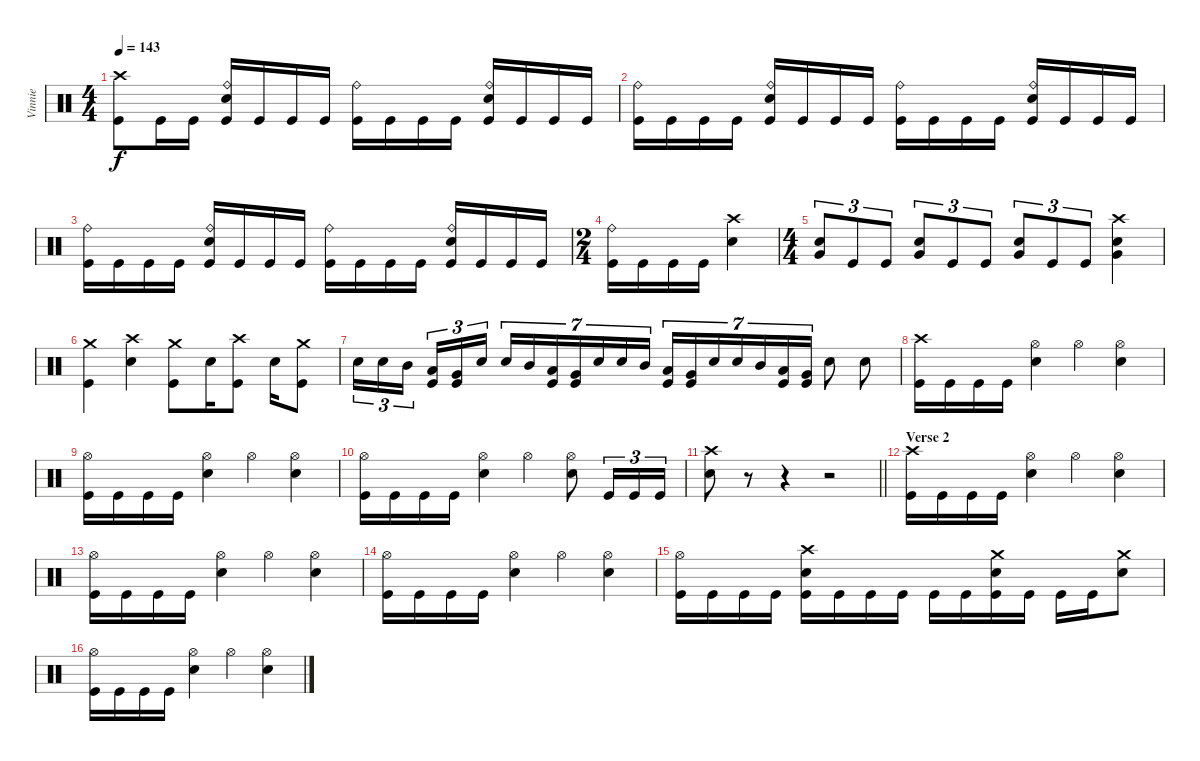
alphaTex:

\track ("Vinnie" "Vinnie") {instrument percussion}
\staff {score}
\articulation defaults
\ts (4 4)
\tempo 143
\clef neutral
\ks c
("Crash high (hit)" "Kick (hit)").8{dy f} "Kick (hit)".16 "Kick (hit)".16 ("Ride (bell)" "Electric Snare (hit)" "Kick (hit)").16 "Kick (hit)".16 "Kick (hit)".16 "Kick (hit)".16 ("Ride (bell)" "Kick (hit)").16 "Kick (hit)".16 "Kick (hit)".16 "Kick (hit)".16 ("Ride (bell)" "Electric Snare (hit)" "Kick (hit)").16 "Kick (hit)".16 "Kick (hit)".16 "Kick (hit)".16 |
("Ride (bell)" "Kick (hit)").16 "Kick (hit)".16 "Kick (hit)".16 "Kick (hit)".16 ("Ride (bell)" "Electric Snare (hit)" "Kick (hit)").16 "Kick (hit)".16 "Kick (hit)".16 "Kick (hit)".16 ("Ride (bell)" "Kick (hit)").16 "Kick (hit)".16 "Kick (hit)".16 "Kick (hit)".16 ("Ride (bell)" "Electric Snare (hit)" "Kick (hit)").16 "Kick (hit)".16 "Kick (hit)".16 "Kick (hit)".16 |
("Ride (bell)" "Kick (hit)").16 "Kick (hit)".16 "Kick (hit)".16 "Kick (hit)".16 ("Ride (bell)" "Electric Snare (hit)" "Kick (hit)").16 "Kick (hit)".16 "Kick (hit)".16 "Kick (hit)".16 ("Ride (bell)" "Kick (hit)").16 "Kick (hit)".16 "Kick (hit)".16 "Kick (hit)".16 ("Ride (bell)" "Electric Snare (hit)" "Kick (hit)").16 "Kick (hit)".16 "Kick (hit)".16 "Kick (hit)".16 |
\ts (2 4)
("Ride (bell)" "Kick (hit)").16 "Kick (hit)".16 "Kick (hit)".16 "Kick (hit)".16 ("Crash high (hit)" "Electric Snare (hit)").4 |
\ts (4 4)
("Electric Snare (hit)" "Very Low Tom (hit)").8{tu (3 2)} "Kick (hit)".8{tu (3 2)} "Kick (hit)".8{tu (3 2)} ("Electric Snare (hit)" "Very Low Tom (hit)").8{tu (3 2)} "Kick (hit)".8{tu (3 2)} "Kick (hit)".8{tu (3 2)} ("Electric Snare (hit)" "Very Low Tom (hit)").8{tu (3 2)} "Kick (hit)".8{tu (3 2)} "Kick (hit)".8{tu (3 2)} ("Crash high (hit)" "Electric Snare (hit)" "Very Low Tom (hit)").4 |
("Crash medium (hit)" "Kick (hit)").4 ("Crash high (hit)" "Electric Snare (hit)").4 ("Crash medium (hit)" "Kick (hit)").8 "Electric Snare (hit)".16 ("Crash high (hit)" "Kick (hit)").8 "Electric Snare (hit)".16 ("Crash medium (hit)" "Kick (hit)").8 |
"Electric Snare (hit)".16{tu (3 2)} "Electric Snare (hit)".16{tu (3 2)} "Mid Tom (hit)".16{tu (3 2) beam splitsecondary} ("Low Tom (hit)" "Kick (hit)").16{tu (3 2)} ("Very Low Tom (hit)" "Kick (hit)").16{tu (3 2)} "Electric Snare (hit)".16{tu (3 2)} "Electric Snare (hit)".16{tu (7 4)} "Mid Tom (hit)".16{tu (7 4)} ("Low Tom (hit)" "Kick (hit)").16{tu (7 4)} ("Very Low Tom (hit)" "Kick (hit)").16{tu (7 4)} "Electric Snare (hit)".16{tu (7 4)} "Electric Snare (hit)".16{tu (7 4)} "Mid Tom (hit)".16{tu (7 4)} ("Low Tom (hit)" "Kick (hit)").16{tu (7 4)} ("Very Low Tom (hit)" "Kick (hit)").16{tu (7 4)} "Electric Snare (hit)".16{tu (7 4)} "Electric Snare (hit)".16{tu (7 4)} "Mid Tom (hit)".16{tu (7 4)} ("Low Tom (hit)" "Kick (hit)").16{tu (7 4)} ("Very Low Tom (hit)" "Kick (hit)").16{tu (7 4)} "Electric Snare (hit)".8 "Electric Snare (hit)".8 |
("Crash high (hit)" "Kick (hit)").16 "Kick (hit)".16 "Kick (hit)".16 "Kick (hit)".16 ("Hi-Hat (open)" "Electric Snare (hit)").4 "Hi-Hat (open)".4 ("Hi-Hat (open)" "Electric Snare (hit)").4 |
("Hi-Hat (open)" "Kick (hit)").16 "Kick (hit)".16 "Kick (hit)".16 "Kick (hit)".16 ("Hi-Hat (open)" "Electric Snare (hit)").4 "Hi-Hat (open)".4 ("Hi-Hat (open)" "Electric Snare (hit)").4 |
("Hi-Hat (open)" "Kick (hit)").16 "Kick (hit)".16 "Kick (hit)".16 "Kick (hit)".16 ("Hi-Hat (open)" "Electric Snare (hit)").4 "Hi-Hat (open)".4 ("Hi-Hat (open)" "Electric Snare (hit)").8 "Kick (hit)".16{tu (3 2)} "Kick (hit)".16{tu (3 2)} "Kick (hit)".16{tu (3 2)} |
\barLineRight lightlight
("Crash high (hit)" "Electric Snare (hit)").8 r.8{volume 0} r.4 r.2 |
\section ("" "Verse 2")
("Crash high (hit)" "Kick (hit)").16{volume 16} "Kick (hit)".16 "Kick (hit)".16 "Kick (hit)".16 ("Hi-Hat (open)" "Electric Snare (hit)").4 "Hi-Hat (open)".4 ("Hi-Hat (open)" "Electric Snare (hit)").4 |
("Hi-Hat (open)" "Kick (hit)").16 "Kick (hit)".16 "Kick (hit)".16 "Kick (hit)".16 ("Hi-Hat (open)" "Electric Snare (hit)").4 "Hi-Hat (open)".4 ("Hi-Hat (open)" "Electric Snare (hit)").4 |
("Hi-Hat (open)" "Kick (hit)").16 "Kick (hit)".16 "Kick (hit)".16 "Kick (hit)".16 ("Hi-Hat (open)" "Electric Snare (hit)").4 "Hi-Hat (open)".4 ("Hi-Hat (open)" "Electric Snare (hit)").4 |
("Hi-Hat (open)" "Kick (hit)").16 "Kick (hit)".16 "Kick (hit)".16 "Kick (hit)".16 ("Crash high (hit)" "Electric Snare (hit)" "Kick (hit)").16 "Kick (hit)".16 "Kick (hit)".16 "Kick (hit)".16 "Kick (hit)".16 "Kick (hit)".16 ("Crash medium (hit)" "Electric Snare (hit)" "Kick (hit)").16 "Kick (hit)".16 "Kick (hit)".16 "Kick (hit)".16 ("Crash medium (hit)" "Electric Snare (hit)").8 |
("Hi-Hat (open)" "Kick (hit)").16 "Kick (hit)".16 "Kick (hit)".16 "Kick (hit)".16 ("Hi-Hat (open)" "Electric Snare (hit)").4 "Hi-Hat (open)".4 ("Hi-Hat (open)" "Electric Snare (hit)").4
